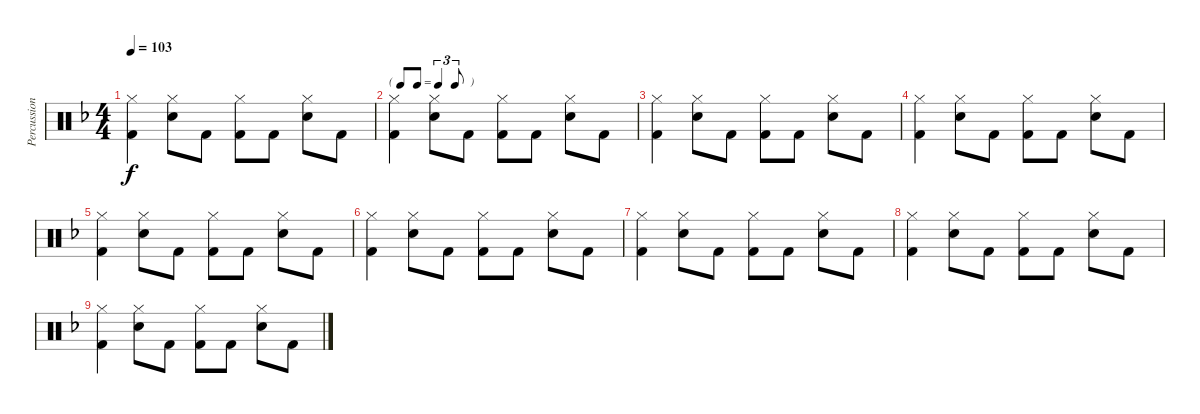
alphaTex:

\track ("Percussion" "Percussion") {instrument percussion}
\staff {score}
\articulation defaults
\ts (4 4)
\tempo 103
\clef neutral
\ks f
("Hi-Hat (closed)" "Kick (hit) 2").4{dy f} ("Hi-Hat (closed)" "Snare (hit) 2").8 "Kick (hit) 2".8 ("Hi-Hat (closed)" "Kick (hit) 2").8 "Kick (hit) 2".8 ("Hi-Hat (closed)" "Snare (hit) 2").8 "Kick (hit) 2".8 |
\tf triplet8th
("Hi-Hat (closed)" "Kick (hit) 2").4 ("Hi-Hat (closed)" "Snare (hit) 2").8 "Kick (hit) 2".8 ("Hi-Hat (closed)" "Kick (hit) 2").8 "Kick (hit) 2".8 ("Hi-Hat (closed)" "Snare (hit) 2").8 "Kick (hit) 2".8 |
("Hi-Hat (closed)" "Kick (hit) 2").4 ("Hi-Hat (closed)" "Snare (hit) 2").8 "Kick (hit) 2".8 ("Hi-Hat (closed)" "Kick (hit) 2").8 "Kick (hit) 2".8 ("Hi-Hat (closed)" "Snare (hit) 2").8 "Kick (hit) 2".8 |
("Hi-Hat (closed)" "Kick (hit) 2").4 ("Hi-Hat (closed)" "Snare (hit) 2").8 "Kick (hit) 2".8 ("Hi-Hat (closed)" "Kick (hit) 2").8 "Kick (hit) 2".8 ("Hi-Hat (closed)" "Snare (hit) 2").8 "Kick (hit) 2".8 |
("Hi-Hat (closed)" "Kick (hit) 2").4 ("Hi-Hat (closed)" "Snare (hit) 2").8 "Kick (hit) 2".8 ("Hi-Hat (closed)" "Kick (hit) 2").8 "Kick (hit) 2".8 ("Hi-Hat (closed)" "Snare (hit) 2").8 "Kick (hit) 2".8 |
("Hi-Hat (closed)" "Kick (hit) 2").4 ("Hi-Hat (closed)" "Snare (hit) 2").8 "Kick (hit) 2".8 ("Hi-Hat (closed)" "Kick (hit) 2").8 "Kick (hit) 2".8 ("Hi-Hat (closed)" "Snare (hit) 2").8 "Kick (hit) 2".8 |
("Hi-Hat (closed)" "Kick (hit) 2").4 ("Hi-Hat (closed)" "Snare (hit) 2").8 "Kick (hit) 2".8 ("Hi-Hat (closed)" "Kick (hit) 2").8 "Kick (hit) 2".8 ("Hi-Hat (closed)" "Snare (hit) 2").8 "Kick (hit) 2".8 |
("Hi-Hat (closed)" "Kick (hit) 2").4 ("Hi-Hat (closed)" "Snare (hit) 2").8 "Kick (hit) 2".8 ("Hi-Hat (closed)" "Kick (hit) 2").8 "Kick (hit) 2".8 ("Hi-Hat (closed)" "Snare (hit) 2").8 "Kick (hit) 2".8 |
("Hi-Hat (closed)" "Kick (hit) 2").4 ("Hi-Hat (closed)" "Snare (hit) 2").8 "Kick (hit) 2".8 ("Hi-Hat (closed)" "Kick (hit) 2").8 "Kick (hit) 2".8 ("Hi-Hat (closed)" "Snare (hit) 2").8 "Kick (hit) 2".8
